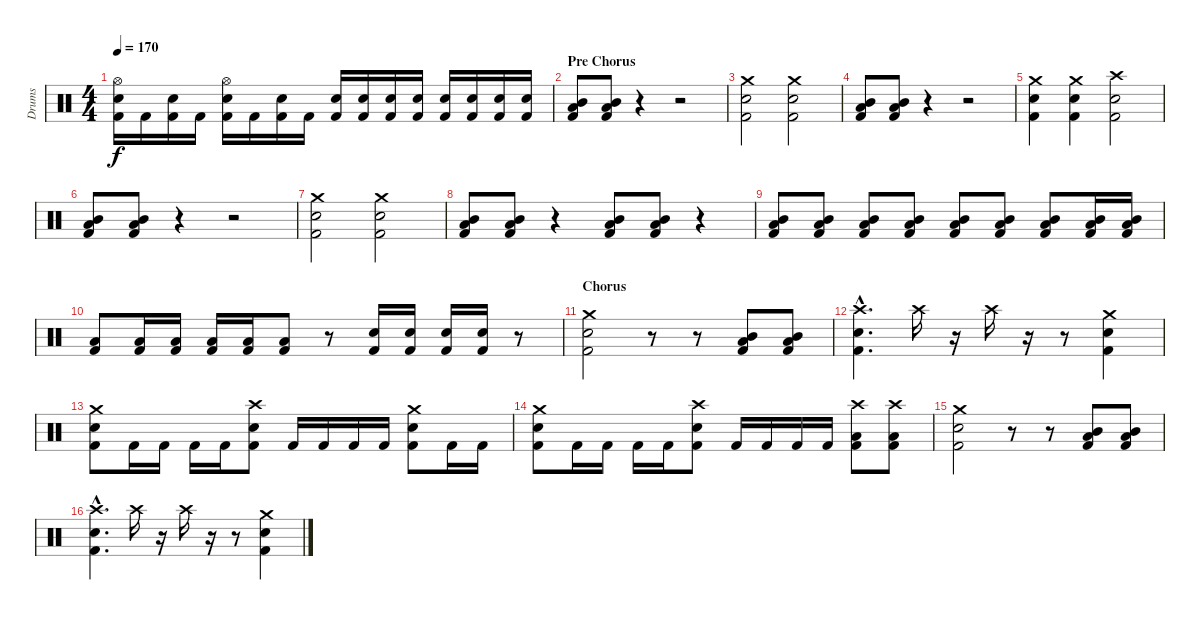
\track ("Drums" "Drums") {instrument percussion}
\staff {score}
\articulation defaults
\ts (4 4)
\tempo 170
\clef neutral
\ks c
("Kick (hit) 2" "Snare (hit) 2" "Hi-Hat (open)").16{dy f} "Kick (hit) 2".16 ("Kick (hit) 2" "Snare (hit) 2").16 "Kick (hit) 2".16 ("Kick (hit) 2" "Snare (hit) 2" "Hi-Hat (open)").16 "Kick (hit) 2".16 ("Kick (hit) 2" "Snare (hit) 2").16 "Kick (hit) 2".16 ("Kick (hit) 2" "Snare (hit) 2").16 ("Kick (hit) 2" "Snare (hit) 2").16 ("Kick (hit) 2" "Snare (hit) 2").16 ("Kick (hit) 2" "Snare (hit) 2").16 ("Kick (hit) 2" "Snare (hit) 2").16 ("Kick (hit) 2" "Snare (hit) 2").16 ("Kick (hit) 2" "Snare (hit) 2").16 ("Kick (hit) 2" "Snare (hit) 2").16 |
\section ("" "Pre Chorus")
("Kick (hit) 2" "Low Tom (hit)" "Mid Tom (hit)").8 ("Kick (hit) 2" "Low Tom (hit)" "Mid Tom (hit)").8 r.4 r.2 |
("Kick (hit) 2" "Snare (hit) 2" "Crash medium (hit)").2 ("Kick (hit) 2" "Snare (hit) 2" "Crash medium (hit)").2 |
("Kick (hit) 2" "Low Tom (hit)" "Mid Tom (hit)").8 ("Kick (hit) 2" "Low Tom (hit)" "Mid Tom (hit)").8 r.4 r.2 |
("Kick (hit) 2" "Snare (hit) 2" "Crash medium (hit)").4 ("Kick (hit) 2" "Snare (hit) 2" "Crash medium (hit)").4 ("Kick (hit) 2" "Snare (hit) 2" "Crash high (hit)").2 |
("Kick (hit) 2" "Low Tom (hit)" "Mid Tom (hit)").8 ("Kick (hit) 2" "Low Tom (hit)" "Mid Tom (hit)").8 r.4 r.2 |
("Kick (hit) 2" "Snare (hit) 2" "Crash medium (hit)").2 ("Kick (hit) 2" "Snare (hit) 2" "Crash medium (hit)").2 |
("Kick (hit) 2" "Low Tom (hit)" "Mid Tom (hit)").8 ("Kick (hit) 2" "Low Tom (hit)" "Mid Tom (hit)").8 r.4 ("Kick (hit) 2" "Low Tom (hit)" "Mid Tom (hit)").8 ("Kick (hit) 2" "Low Tom (hit)" "Mid Tom (hit)").8 r.4 |
("Kick (hit) 2" "Low Tom (hit)" "Mid Tom (hit)").8 ("Kick (hit) 2" "Low Tom (hit)" "Mid Tom (hit)").8 ("Kick (hit) 2" "Low Tom (hit)" "Mid Tom (hit)").8 ("Kick (hit) 2" "Low Tom (hit)" "Mid Tom (hit)").8 ("Kick (hit) 2" "Low Tom (hit)" "Mid Tom (hit)").8 ("Kick (hit) 2" "Low Tom (hit)" "Mid Tom (hit)").8 ("Kick (hit) 2" "Low Tom (hit)" "Mid Tom (hit)").8 ("Kick (hit) 2" "Low Tom (hit)" "Mid Tom (hit)").16 ("Kick (hit) 2" "Low Tom (hit)" "Mid Tom (hit)").16 |
("Kick (hit) 2" "Low Tom (hit)").8 ("Kick (hit) 2" "Low Tom (hit)").16 ("Kick (hit) 2" "Low Tom (hit)").16 ("Kick (hit) 2" "Low Tom (hit)").16 ("Kick (hit) 2" "Low Tom (hit)").16 ("Kick (hit) 2" "Low Tom (hit)").8 r.8 ("Kick (hit) 2" "Snare (hit) 2").16 ("Kick (hit) 2" "Snare (hit) 2").16 ("Kick (hit) 2" "Snare (hit) 2").16 ("Kick (hit) 2" "Snare (hit) 2").16 r.8 |
\section ("" "Chorus")
("Kick (hit) 2" "Snare (hit) 2" "Crash medium (hit)").2 r.8 r.8 ("Kick (hit) 2" "Low Tom (hit)" "Mid Tom (hit)").8 ("Kick (hit) 2" "Low Tom (hit)" "Mid Tom (hit)").8 |
("Kick (hit) 2"{hac} "Snare (hit) 2"{hac} "Crash high (hit)"{hac}).4{d} "Crash high (hit)".16 r.16 "Crash high (hit)".16 r.16 r.8 ("Kick (hit) 2" "Snare (hit) 2" "Crash medium (hit)").4 |
("Kick (hit) 2" "Snare (hit) 2" "Crash medium (hit)").8 "Kick (hit) 2".16 "Kick (hit) 2".16 "Kick (hit) 2".16 "Kick (hit) 2".16 ("Kick (hit) 2" "Snare (hit) 2" "Crash high (hit)").8 "Kick (hit) 2".16 "Kick (hit) 2".16 "Kick (hit) 2".16 "Kick (hit) 2".16 ("Kick (hit) 2" "Snare (hit) 2" "Crash medium (hit)").8 "Kick (hit) 2".16 "Kick (hit) 2".16 |
("Kick (hit) 2" "Snare (hit) 2" "Crash medium (hit)").8 "Kick (hit) 2".16 "Kick (hit) 2".16 "Kick (hit) 2".16 "Kick (hit) 2".16 ("Kick (hit) 2" "Snare (hit) 2" "Crash high (hit)").8 "Kick (hit) 2".16 "Kick (hit) 2".16 "Kick (hit) 2".16 "Kick (hit) 2".16 ("Kick (hit) 2" "Low Tom (hit)" "Crash high (hit)").8 ("Kick (hit) 2" "Low Tom (hit)" "Crash high (hit)").8 |
("Kick (hit) 2" "Snare (hit) 2" "Crash medium (hit)").2 r.8 r.8 ("Kick (hit) 2" "Low Tom (hit)" "Mid Tom (hit)").8 ("Kick (hit) 2" "Low Tom (hit)" "Mid Tom (hit)").8 |
("Kick (hit) 2"{hac} "Snare (hit) 2"{hac} "Crash high (hit)"{hac}).4{d} "Crash high (hit)".16 r.16 "Crash high (hit)".16 r.16 r.8 ("Kick (hit) 2" "Snare (hit) 2" "Crash medium (hit)").4
